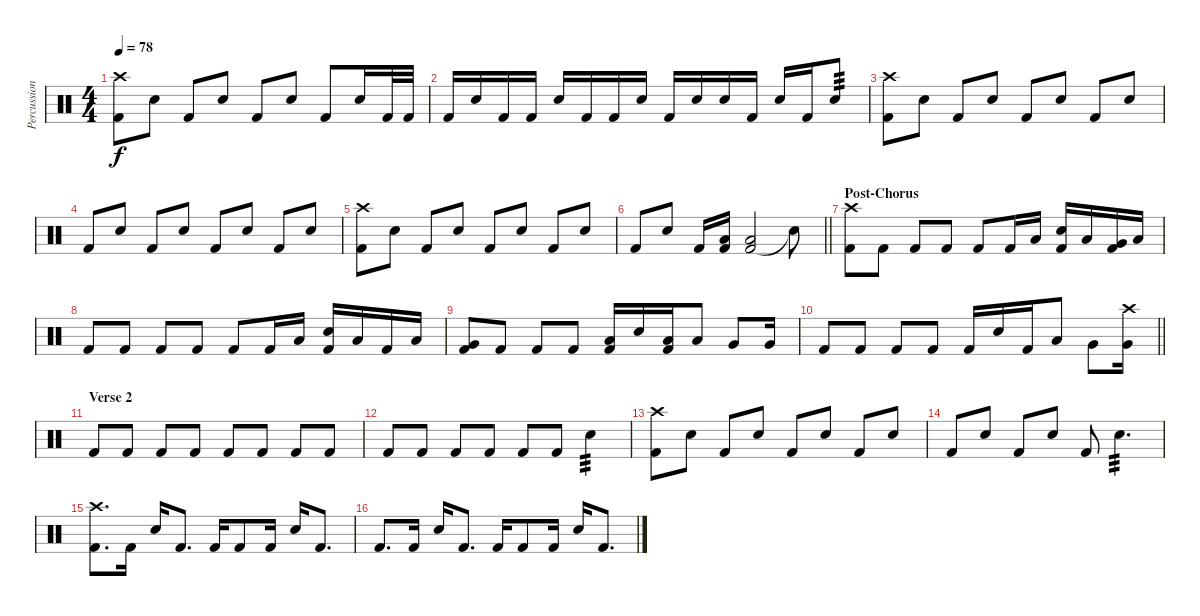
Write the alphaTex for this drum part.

\track ("Percussion" "Percussion") {instrument percussion}
\staff {score}
\articulation defaults
\ts (4 4)
\tempo 78
\clef neutral
\ks c
("Kick (hit) 2" "Crash high (hit)").8{dy f} "Snare (hit) 2".8 "Kick (hit) 2".8 "Snare (hit) 2".8 "Kick (hit) 2".8 "Snare (hit) 2".8 "Kick (hit) 2".8 "Snare (hit) 2".16 "Kick (hit) 2".32 "Kick (hit) 2".32 |
"Kick (hit) 2".16 "Electric Snare (hit)".16 "Kick (hit) 2".16 "Kick (hit) 2".16 "Electric Snare (hit)".16 "Kick (hit) 2".16 "Kick (hit) 2".16 "Electric Snare (hit)".16 "Kick (hit) 2".16 "Electric Snare (hit)".16 "Electric Snare (hit)".16 "Kick (hit) 2".16 "Electric Snare (hit)".16 "Kick (hit) 2".16 "Electric Snare (hit)".8{tp 3} |
("Kick (hit) 2" "Crash high (hit)").8 "Snare (hit) 2".8 "Kick (hit) 2".8 "Snare (hit) 2".8 "Kick (hit) 2".8 "Snare (hit) 2".8 "Kick (hit) 2".8 "Snare (hit) 2".8 |
"Kick (hit) 2".8 "Snare (hit) 2".8 "Kick (hit) 2".8 "Snare (hit) 2".8 "Kick (hit) 2".8 "Snare (hit) 2".8 "Kick (hit) 2".8 "Snare (hit) 2".8 |
("Kick (hit) 2" "Crash high (hit)").8 "Snare (hit) 2".8 "Kick (hit) 2".8 "Snare (hit) 2".8 "Kick (hit) 2".8 "Snare (hit) 2".8 "Kick (hit) 2".8 "Snare (hit) 2".8 |
\barLineRight lightlight "Kick (hit) 2".8 "Snare (hit) 2".8 "Kick (hit) 2".16
("Kick (hit) 2" "Low Tom (hit)").16 ("Kick (hit) 2" "Low Tom (hit)").2 "Snare (hit)"{t}.8 |
\section ("" "Post-Chorus")
("Kick (hit) 2" "Crash high (hit)").8 "Kick (hit) 2".8 "Kick (hit) 2".8 "Kick (hit) 2".8 "Kick (hit) 2".8 "Kick (hit) 2".16 "Low Tom (hit)".16 ("Kick (hit) 2" "Snare (hit) 2").16 "Low Tom (hit)".16 ("Kick (hit) 2" "Very Low Tom (hit)").16 "Low Tom (hit)".16 |
"Kick (hit) 2".8 "Kick (hit) 2".8 "Kick (hit) 2".8 "Kick (hit) 2".8 "Kick (hit) 2".8 "Kick (hit) 2".16 "Low Tom (hit)".16 ("Kick (hit) 2" "Snare (hit) 2").16 "Low Tom (hit)".16 "Kick (hit) 2".16 "Low Tom (hit)".16 |
("Kick (hit) 2" "Very Low Tom (hit)").8 "Kick (hit) 2".8 "Kick (hit) 2".8 "Kick (hit) 2".8 ("Kick (hit) 2" "Low Tom (hit)").16 "Snare (hit) 2".16 ("Kick (hit) 2" "Low Tom (hit)").16 "Low Tom (hit)".8 "Very Low Tom (hit)".8 "Very Low Tom (hit)".16 |
\barLineRight lightlight "Kick (hit) 2".8 "Kick (hit) 2".8 "Kick (hit) 2".8 "Kick (hit) 2".8 "Kick (hit) 2".16 "Snare (hit) 2".16 "Kick (hit) 2".16 "Low Tom (hit)".8 "Very Low Tom (hit)".8
("Very Low Tom (hit)" "Crash high (hit)").16 |
\section ("" "Verse 2")
"Kick (hit) 2".8 "Kick (hit) 2".8 "Kick (hit) 2".8 "Kick (hit) 2".8 "Kick (hit) 2".8 "Kick (hit) 2".8 "Kick (hit) 2".8 "Kick (hit) 2".8 |
"Kick (hit) 2".8 "Kick (hit) 2".8 "Kick (hit) 2".8 "Kick (hit) 2".8 "Kick (hit) 2".8 "Kick (hit) 2".8 "Snare (hit) 2".4{tp 3} |
("Kick (hit) 2" "Crash high (hit)").8 "Snare (hit) 2".8 "Kick (hit) 2".8 "Snare (hit) 2".8 "Kick (hit) 2".8 "Snare (hit) 2".8 "Kick (hit) 2".8 "Snare (hit) 2".8 |
"Kick (hit) 2".8 "Snare (hit) 2".8 "Kick (hit) 2".8 "Snare (hit) 2".8 "Kick (hit) 2".8 "Snare (hit) 2".4{d tp 3} |
("Kick (hit) 2" "Crash high (hit)").8{d} "Kick (hit) 2".16 "Snare (hit) 2".16 "Kick (hit) 2".8{d} "Kick (hit) 2".16 "Kick (hit) 2".8 "Kick (hit) 2".16 "Snare (hit) 2".16 "Kick (hit) 2".8{d} |
"Kick (hit) 2".8{d} "Kick (hit) 2".16 "Snare (hit) 2".16 "Kick (hit) 2".8{d} "Kick (hit) 2".16 "Kick (hit) 2".8 "Kick (hit) 2".16 "Snare (hit) 2".16 "Kick (hit) 2".8{d}
